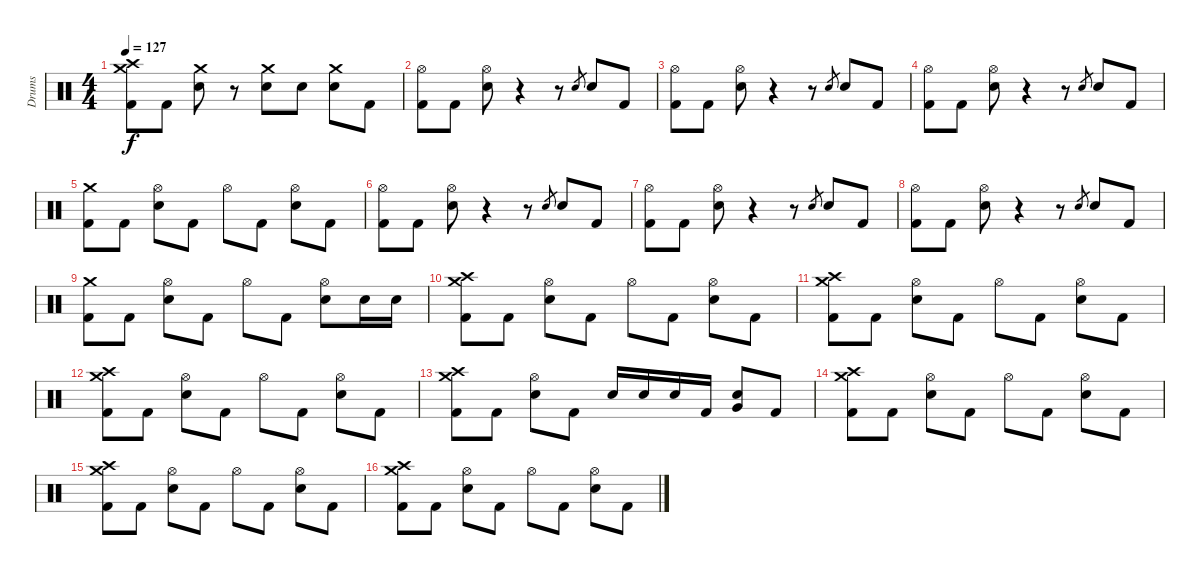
\track ("Drums" "Drums") {instrument percussion}
\staff {score}
\articulation defaults
\ts (4 4)
\tempo 127
\clef neutral
\ks c
("Crash high (hit)" "Crash medium (hit)" "Kick (hit) 2").8{dy f} "Kick (hit) 2".8 ("Crash medium (hit)" "Snare (hit) 2").8 r.8 ("Crash medium (hit)" "Snare (hit) 2").8 "Snare (hit) 2".8 ("Crash medium (hit)" "Snare (hit) 2").8 "Kick (hit) 2".8 |
("Hi-Hat (open)" "Kick (hit) 2").8 "Kick (hit) 2".8 ("Hi-Hat (open)" "Snare (hit) 2").8 r.4 r.8 "Snare (hit) 2".8{gr} "Snare (hit) 2".8 "Kick (hit) 2".8 |
("Hi-Hat (open)" "Kick (hit) 2").8 "Kick (hit) 2".8 ("Hi-Hat (open)" "Snare (hit) 2").8 r.4 r.8 "Snare (hit) 2".8{gr} "Snare (hit) 2".8 "Kick (hit) 2".8 |
("Hi-Hat (open)" "Kick (hit) 2").8 "Kick (hit) 2".8 ("Hi-Hat (open)" "Snare (hit) 2").8 r.4 r.8 "Snare (hit) 2".8{gr} "Snare (hit) 2".8 "Kick (hit) 2".8 |
("Crash medium (hit)" "Kick (hit) 2").8 "Kick (hit) 2".8 ("Hi-Hat (open)" "Snare (hit) 2").8 "Kick (hit) 2".8 "Hi-Hat (open)".8 "Kick (hit) 2".8 ("Hi-Hat (open)" "Snare (hit) 2").8 "Kick (hit) 2".8 |
("Hi-Hat (open)" "Kick (hit) 2").8 "Kick (hit) 2".8 ("Hi-Hat (open)" "Snare (hit) 2").8 r.4 r.8 "Snare (hit) 2".8{gr} "Snare (hit) 2".8 "Kick (hit) 2".8 |
("Hi-Hat (open)" "Kick (hit) 2").8 "Kick (hit) 2".8 ("Hi-Hat (open)" "Snare (hit) 2").8 r.4 r.8 "Snare (hit) 2".8{gr} "Snare (hit) 2".8 "Kick (hit) 2".8 |
("Hi-Hat (open)" "Kick (hit) 2").8 "Kick (hit) 2".8 ("Hi-Hat (open)" "Snare (hit) 2").8 r.4 r.8 "Snare (hit) 2".8{gr} "Snare (hit) 2".8 "Kick (hit) 2".8 |
("Crash medium (hit)" "Kick (hit) 2").8 "Kick (hit) 2".8 ("Hi-Hat (open)" "Snare (hit) 2").8 "Kick (hit) 2".8 "Hi-Hat (open)".8 "Kick (hit) 2".8 ("Hi-Hat (open)" "Snare (hit) 2").8 "Snare (hit) 2".16 "Snare (hit) 2".16 |
("Crash medium (hit)" "Crash high (hit)" "Kick (hit) 2").8 "Kick (hit) 2".8 ("Hi-Hat (open)" "Snare (hit) 2").8 "Kick (hit) 2".8 "Hi-Hat (open)".8 "Kick (hit) 2".8 ("Hi-Hat (open)" "Snare (hit) 2").8 "Kick (hit) 2".8 |
("Crash medium (hit)" "Crash high (hit)" "Kick (hit) 2").8 "Kick (hit) 2".8 ("Hi-Hat (open)" "Snare (hit) 2").8 "Kick (hit) 2".8 "Hi-Hat (open)".8 "Kick (hit) 2".8 ("Hi-Hat (open)" "Snare (hit) 2").8 "Kick (hit) 2".8 |
("Crash medium (hit)" "Crash high (hit)" "Kick (hit) 2").8 "Kick (hit) 2".8 ("Hi-Hat (open)" "Snare (hit) 2").8 "Kick (hit) 2".8 "Hi-Hat (open)".8 "Kick (hit) 2".8 ("Hi-Hat (open)" "Snare (hit) 2").8 "Kick (hit) 2".8 |
("Crash medium (hit)" "Crash high (hit)" "Kick (hit) 2").8 "Kick (hit) 2".8 ("Hi-Hat (open)" "Snare (hit) 2").8 "Kick (hit) 2".8 "Snare (hit) 2".16 "Snare (hit) 2".16 "Snare (hit) 2".16 "Kick (hit) 2".16 ("Very Low Tom (hit)" "Snare (hit) 2").8 "Kick (hit) 2".8 |
("Crash medium (hit)" "Crash high (hit)" "Kick (hit) 2").8 "Kick (hit) 2".8 ("Hi-Hat (open)" "Snare (hit) 2").8 "Kick (hit) 2".8 "Hi-Hat (open)".8 "Kick (hit) 2".8 ("Hi-Hat (open)" "Snare (hit) 2").8 "Kick (hit) 2".8 |
("Crash medium (hit)" "Crash high (hit)" "Kick (hit) 2").8 "Kick (hit) 2".8 ("Hi-Hat (open)" "Snare (hit) 2").8 "Kick (hit) 2".8 "Hi-Hat (open)".8 "Kick (hit) 2".8 ("Hi-Hat (open)" "Snare (hit) 2").8 "Kick (hit) 2".8 |
("Crash medium (hit)" "Crash high (hit)" "Kick (hit) 2").8 "Kick (hit) 2".8 ("Hi-Hat (open)" "Snare (hit) 2").8 "Kick (hit) 2".8 "Hi-Hat (open)".8 "Kick (hit) 2".8 ("Hi-Hat (open)" "Snare (hit) 2").8 "Kick (hit) 2".8
